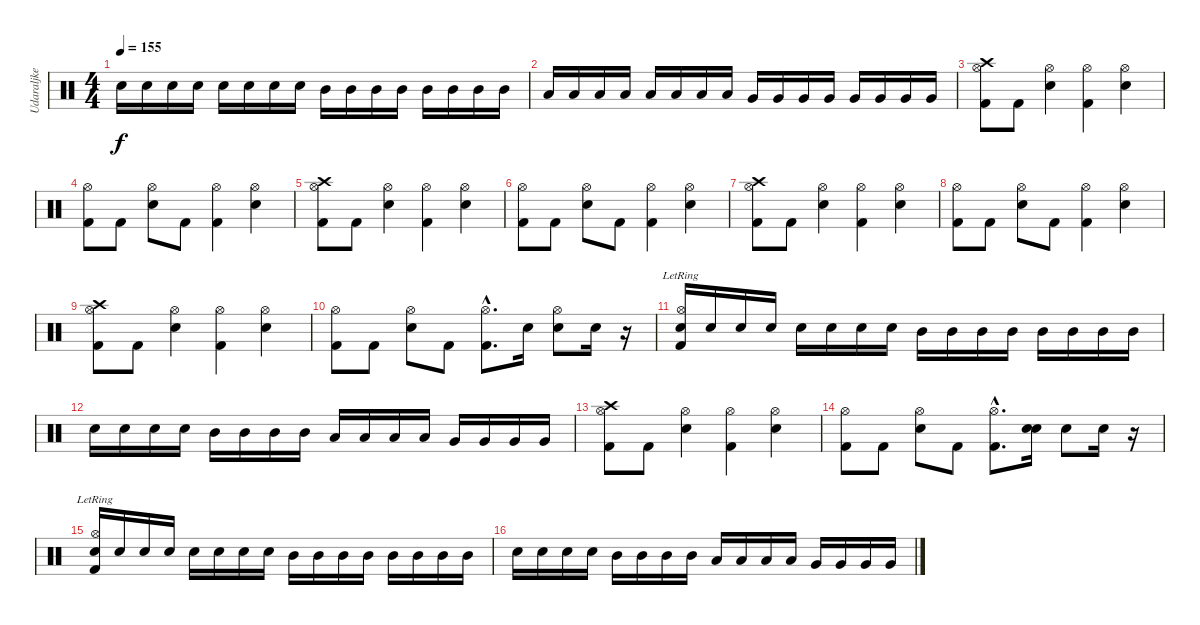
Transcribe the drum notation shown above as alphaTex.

\track ("Udaraljke" "Udaraljke") {instrument percussion}
\staff {score}
\articulation defaults
\ts (4 4)
\tempo 155
\clef neutral
\ks c "Snare (hit) 2".16{dy f} "Snare (hit) 2".16 "Snare (hit) 2".16 "Snare (hit) 2".16 "Snare (hit) 2".16 "Snare (hit) 2".16 "Snare (hit) 2".16 "Snare (hit) 2".16 "Mid Tom (hit)".16 "Mid Tom (hit)".16 "Mid Tom (hit)".16 "Mid Tom (hit)".16 "Mid Tom (hit)".16 "Mid Tom (hit)".16 "Mid Tom (hit)".16 "Mid Tom (hit)".16
|
"Low Tom (hit)".16 "Low Tom (hit)".16 "Low Tom (hit)".16 "Low Tom (hit)".16 "Low Tom (hit)".16 "Low Tom (hit)".16 "Low Tom (hit)".16 "Low Tom (hit)".16 "Very Low Tom (hit)".16 "Very Low Tom (hit)".16 "Very Low Tom (hit)".16 "Very Low Tom (hit)".16 "Very Low Tom (hit)".16 "Very Low Tom (hit)".16 "Very Low Tom (hit)".16 "Very Low Tom (hit)".16 |
("Crash high (hit)" "Hi-Hat (open)" "Kick (hit) 2").8 "Kick (hit) 2".8 ("Hi-Hat (open)" "Electric Snare (hit)").4 ("Hi-Hat (open)" "Kick (hit) 2").4 ("Hi-Hat (open)" "Electric Snare (hit)").4 |
("Hi-Hat (open)" "Kick (hit) 2").8 "Kick (hit) 2".8 ("Hi-Hat (open)" "Electric Snare (hit)").8 "Kick (hit) 2".8 ("Hi-Hat (open)" "Kick (hit) 2").4 ("Hi-Hat (open)" "Electric Snare (hit)").4 |
("Crash high (hit)" "Hi-Hat (open)" "Kick (hit) 2").8 "Kick (hit) 2".8 ("Hi-Hat (open)" "Electric Snare (hit)").4 ("Hi-Hat (open)" "Kick (hit) 2").4 ("Hi-Hat (open)" "Electric Snare (hit)").4 |
("Hi-Hat (open)" "Kick (hit) 2").8 "Kick (hit) 2".8 ("Hi-Hat (open)" "Electric Snare (hit)").8 "Kick (hit) 2".8 ("Hi-Hat (open)" "Kick (hit) 2").4 ("Hi-Hat (open)" "Electric Snare (hit)").4 |
("Crash high (hit)" "Hi-Hat (open)" "Kick (hit) 2").8 "Kick (hit) 2".8 ("Hi-Hat (open)" "Electric Snare (hit)").4 ("Hi-Hat (open)" "Kick (hit) 2").4 ("Hi-Hat (open)" "Electric Snare (hit)").4 |
("Hi-Hat (open)" "Kick (hit) 2").8 "Kick (hit) 2".8 ("Hi-Hat (open)" "Electric Snare (hit)").8 "Kick (hit) 2".8 ("Hi-Hat (open)" "Kick (hit) 2").4 ("Hi-Hat (open)" "Electric Snare (hit)").4 |
("Crash high (hit)" "Hi-Hat (open)" "Kick (hit) 2").8 "Kick (hit) 2".8 ("Hi-Hat (open)" "Electric Snare (hit)").4 ("Hi-Hat (open)" "Kick (hit) 2").4 ("Hi-Hat (open)" "Electric Snare (hit)").4 |
("Hi-Hat (open)" "Kick (hit) 2").8 "Kick (hit) 2".8 ("Hi-Hat (open)" "Electric Snare (hit)").8 "Kick (hit) 2".8 ("Hi-Hat (open)"{hac} "Kick (hit) 2"{hac}).8{d} "Snare (hit) 2".16 ("Snare (hit) 2" "Hi-Hat (open)").8 "Snare (hit) 2".16 r.16 |
("Snare (hit) 2" "Hi-Hat (open)"{lr} "Kick (hit) 2").16 "Snare (hit) 2".16 "Snare (hit) 2".16 "Snare (hit) 2".16 "Snare (hit) 2".16 "Snare (hit) 2".16 "Snare (hit) 2".16 "Snare (hit) 2".16 "Mid Tom (hit)".16 "Mid Tom (hit)".16 "Mid Tom (hit)".16 "Mid Tom (hit)".16 "Mid Tom (hit)".16 "Mid Tom (hit)".16 "Mid Tom (hit)".16 "Mid Tom (hit)".16 |
"Snare (hit) 2".16 "Snare (hit) 2".16 "Snare (hit) 2".16 "Snare (hit) 2".16 "Mid Tom (hit)".16 "Mid Tom (hit)".16 "Mid Tom (hit)".16 "Mid Tom (hit)".16 "Low Tom (hit)".16 "Low Tom (hit)".16 "Low Tom (hit)".16 "Low Tom (hit)".16 "Very Low Tom (hit)".16 "Very Low Tom (hit)".16 "Very Low Tom (hit)".16 "Very Low Tom (hit)".16 |
("Crash high (hit)" "Hi-Hat (open)" "Kick (hit) 2").8 "Kick (hit) 2".8 ("Hi-Hat (open)" "Electric Snare (hit)").4 ("Hi-Hat (open)" "Kick (hit) 2").4 ("Hi-Hat (open)" "Electric Snare (hit)").4 |
("Hi-Hat (open)" "Kick (hit) 2").8 "Kick (hit) 2".8 ("Hi-Hat (open)" "Electric Snare (hit)").8 "Kick (hit) 2".8 ("Hi-Hat (open)"{hac} "Kick (hit) 2"{hac}).8{d} ("Snare (hit) 2" "Snare (hit)").16 "Snare (hit) 2".8 "Snare (hit) 2".16 r.16 |
("Snare (hit) 2" "Hi-Hat (open)"{lr} "Kick (hit) 2").16 "Snare (hit) 2".16 "Snare (hit) 2".16 "Snare (hit) 2".16 "Snare (hit) 2".16 "Snare (hit) 2".16 "Snare (hit) 2".16 "Snare (hit) 2".16 "Mid Tom (hit)".16 "Mid Tom (hit)".16 "Mid Tom (hit)".16 "Mid Tom (hit)".16 "Mid Tom (hit)".16 "Mid Tom (hit)".16 "Mid Tom (hit)".16 "Mid Tom (hit)".16 |
"Snare (hit) 2".16 "Snare (hit) 2".16 "Snare (hit) 2".16 "Snare (hit) 2".16 "Mid Tom (hit)".16 "Mid Tom (hit)".16 "Mid Tom (hit)".16 "Mid Tom (hit)".16 "Low Tom (hit)".16 "Low Tom (hit)".16 "Low Tom (hit)".16 "Low Tom (hit)".16 "Very Low Tom (hit)".16 "Very Low Tom (hit)".16 "Very Low Tom (hit)".16 "Very Low Tom (hit)".16
